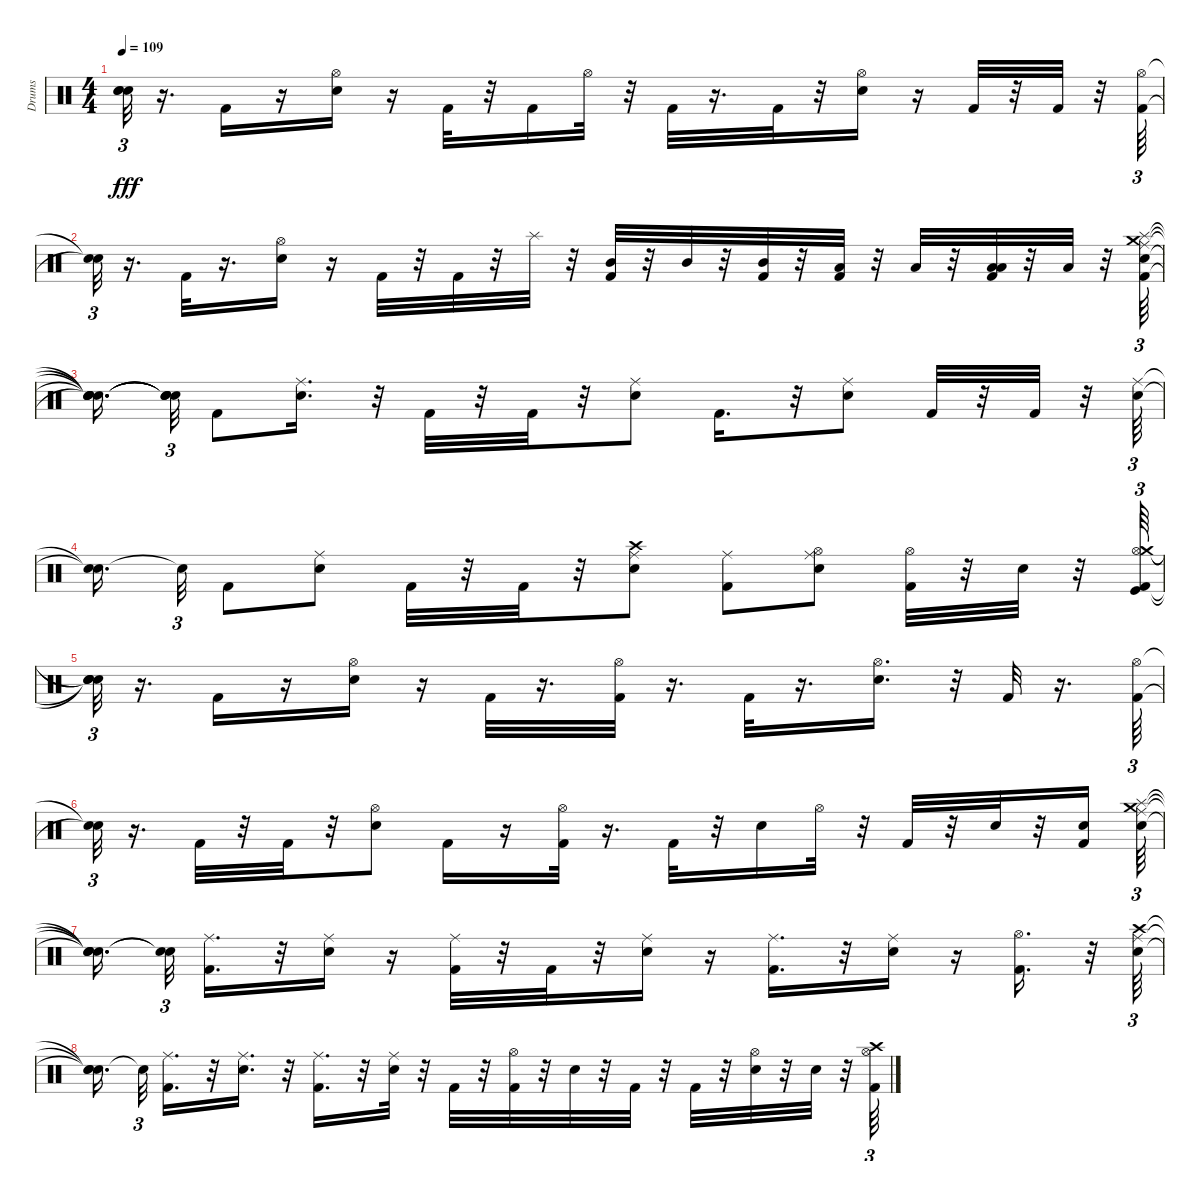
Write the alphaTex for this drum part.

\track ("Drums" "Drums") {instrument percussion}
\staff {score}
\articulation defaults
\ts (4 4)
\tempo 109
\clef neutral
\ks c
("Snare (hit)"{t} "Snare (hit)"{t} "Snare (hit)"{t}).32{tu (3 2) dy fff} r.16{d} "Kick (hit) 2".16 r.16 ("Snare (hit) 2" "Hi-Hat (open)").16 r.16 "Kick (hit) 2".32 r.32 "Kick (hit) 2".16 "Hi-Hat (open)".32 r.32 "Kick (hit) 2".32 r.16{d} "Kick (hit) 2".32 r.32 ("Snare (hit) 2" "Hi-Hat (open)").16 r.16 "Kick (hit) 2".32 r.32 "Kick (hit) 2".32 r.32 ("Kick (hit) 2" "Hi-Hat (open)").64{tu (3 2)} |
("Snare (hit)"{t} "Snare (hit)"{t}).32{tu (3 2)} r.16{d} "Kick (hit) 2".32 r.16{d} ("Snare (hit) 2" "Hi-Hat (open)").16 r.16 "Kick (hit) 2".32 r.32 "Kick (hit) 2".32 r.32 "Splash (hit)".32 r.32 ("Kick (hit) 2" "Mid Tom (hit)").32 r.32 "Mid Tom (hit)".32 r.32 ("Kick (hit) 2" "Mid Tom (hit)").32 r.32 ("Kick (hit) 2" "Low Tom (hit)").32 r.32 "Low Tom (hit)".32 r.32 ("Kick (hit) 2" "Low Floor Tom (hit)" "Low Floor Tom (hit)").32 r.32 "Low Floor Tom (hit)".32 r.32 ("Kick (hit) 2" "Snare (hit) 2" "Ride (middle)" "Splash (hit)" "Crash medium (hit)").64{tu (3 2)} |
("Snare (hit)"{t} "Snare (hit)"{t} "Snare (hit)"{t} "Snare (hit)"{t} "Snare (hit)"{t}).16{d beam splitsecondary} ("Snare (hit)"{t} "Snare (hit)"{t} "Snare (hit)"{t} "Snare (hit)"{t}).32{tu (3 2)} "Kick (hit) 2".8 ("Snare (hit) 2" "Ride (middle)").16{d} r.32 "Kick (hit) 2".32 r.32 "Kick (hit) 2".32 r.32 ("Snare (hit) 2" "Ride (middle)").8 "Kick (hit) 2".16{d} r.32 ("Snare (hit) 2" "Ride (middle)").8 "Kick (hit) 2".32 r.32 "Kick (hit) 2".32 r.32 ("Snare (hit) 2" "Ride (middle)").64{tu (3 2)} |
("Snare (hit)"{t} "Snare (hit)"{t}).16{d beam splitsecondary} "Snare (hit)"{t}.32{tu (3 2)} "Kick (hit) 2".8 ("Snare (hit) 2" "Ride (middle)").8 "Kick (hit) 2".32 r.32 "Kick (hit) 2".32 r.32 ("Snare (hit) 2" "Crash high (hit)" "Ride (middle)").8 ("Kick (hit) 2" "Ride (middle)").8 ("Snare (hit) 2" "Hi-Hat (open)" "Ride (middle)").8 ("Kick (hit) 2" "Hi-Hat (open)").32 r.32 "Snare (hit) 2".32 r.32 ("Kick (hit)" "Kick (hit) 2" "Hi-Hat (open)" "Crash medium (hit)").64{tu (3 2)} |
("Snare (hit)"{t} "Snare (hit)"{t} "Snare (hit)"{t} "Snare (hit)"{t}).32{tu (3 2)} r.16{d} "Kick (hit) 2".16 r.16 ("Snare (hit) 2" "Hi-Hat (open)").16 r.16 "Kick (hit) 2".32 r.16{d} ("Kick (hit) 2" "Hi-Hat (open)").32 r.16{d} "Kick (hit) 2".32 r.16{d} ("Snare (hit) 2" "Hi-Hat (open)").16{d} r.32 "Kick (hit) 2".32 r.16{d} ("Kick (hit) 2" "Hi-Hat (open)").64{tu (3 2)} |
("Snare (hit)"{t} "Snare (hit)"{t}).32{tu (3 2)} r.16{d} "Kick (hit) 2".32 r.32 "Kick (hit) 2".32 r.32 ("Snare (hit) 2" "Hi-Hat (open)").8 "Kick (hit) 2".16 r.16 ("Kick (hit) 2" "Hi-Hat (open)").32 r.16{d} "Kick (hit) 2".32 r.32 "Snare (hit) 2".16 "Hi-Hat (open)".32 r.32 "Kick (hit) 2".32 r.32 "Snare (hit) 2".32 r.32 ("Kick (hit) 2" "Snare (hit) 2").16 ("Snare (hit) 2" "Ride (middle)" "Splash (hit)" "Crash medium (hit)").64{tu (3 2)} |
("Snare (hit)"{t} "Snare (hit)"{t} "Snare (hit)"{t} "Snare (hit)"{t}).16{d beam splitsecondary} ("Snare (hit)"{t} "Snare (hit)"{t}).32{tu (3 2)} ("Kick (hit) 2" "Ride (middle)").16{d} r.32 ("Snare (hit) 2" "Ride (middle)").16 r.16 ("Kick (hit) 2" "Ride (middle)").32 r.32 "Kick (hit) 2".32 r.32 ("Snare (hit) 2" "Ride (middle)").16 r.16 ("Kick (hit) 2" "Ride (middle)").16{d} r.32 ("Snare (hit) 2" "Ride (middle)").16 r.16 ("Kick (hit) 2" "Hi-Hat (open)").16{d} r.32 ("Snare (hit) 2" "Crash high (hit)" "Ride (middle)").64{tu (3 2)} |
("Snare (hit)"{t} "Snare (hit)"{t} "Snare (hit)"{t}).16{d beam splitsecondary} "Snare (hit)"{t}.32{tu (3 2)} ("Kick (hit) 2" "Ride (middle)").16{d} r.32 ("Snare (hit) 2" "Ride (middle)").16{d} r.32 ("Kick (hit) 2" "Ride (middle)").16{d} r.32 ("Snare (hit) 2" "Ride (middle)").32 r.32 "Kick (hit) 2".32 r.32 ("Kick (hit) 2" "Hi-Hat (open)").32 r.32 "Snare (hit) 2".32 r.32 "Kick (hit) 2".32 r.32 "Kick (hit) 2".32 r.32 ("Snare (hit) 2" "Hi-Hat (open)").32 r.32 "Snare (hit) 2".32 r.32 ("Kick (hit) 2" "Hi-Hat (open)" "Crash high (hit)").64{tu (3 2)}
